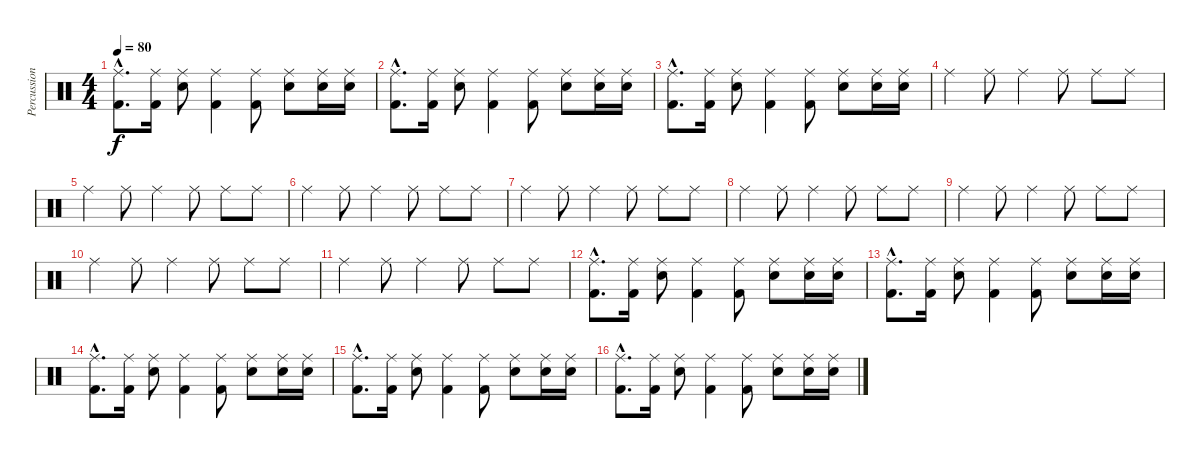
\track ("Percussion" "Percussion") {instrument percussion}
\staff {score}
\articulation defaults
\ts (4 4)
\tempo 80
\clef neutral
\ks c
("Ride (middle)"{hac} "Kick (hit) 2"{hac}).8{d dy f} ("Ride (middle)" "Kick (hit) 2").16 ("Ride (middle)" "Electric Snare (hit)").8 ("Ride (middle)" "Kick (hit) 2").4 ("Ride (middle)" "Kick (hit) 2").8 ("Ride (middle)" "Electric Snare (hit)").8 ("Ride (middle)" "Electric Snare (hit)").16 ("Ride (middle)" "Electric Snare (hit)").16 |
("Ride (middle)"{hac} "Kick (hit) 2"{hac}).8{d} ("Ride (middle)" "Kick (hit) 2").16 ("Ride (middle)" "Electric Snare (hit)").8 ("Ride (middle)" "Kick (hit) 2").4 ("Ride (middle)" "Kick (hit) 2").8 ("Ride (middle)" "Electric Snare (hit)").8 ("Ride (middle)" "Electric Snare (hit)").16 ("Ride (middle)" "Electric Snare (hit)").16 |
("Ride (middle)"{hac} "Kick (hit) 2"{hac}).8{d} ("Ride (middle)" "Kick (hit) 2").16 ("Ride (middle)" "Electric Snare (hit)").8 ("Ride (middle)" "Kick (hit) 2").4 ("Ride (middle)" "Kick (hit) 2").8 ("Ride (middle)" "Electric Snare (hit)").8 ("Ride (middle)" "Electric Snare (hit)").16 ("Ride (middle)" "Electric Snare (hit)").16 |
"Ride (middle)".4 "Ride (middle)".8 "Ride (middle)".4 "Ride (middle)".8 "Ride (middle)".8 "Ride (middle)".8 |
"Ride (middle)".4 "Ride (middle)".8 "Ride (middle)".4 "Ride (middle)".8 "Ride (middle)".8 "Ride (middle)".8 |
"Ride (middle)".4 "Ride (middle)".8 "Ride (middle)".4 "Ride (middle)".8 "Ride (middle)".8 "Ride (middle)".8 |
"Ride (middle)".4 "Ride (middle)".8 "Ride (middle)".4 "Ride (middle)".8 "Ride (middle)".8 "Ride (middle)".8 |
"Ride (middle)".4 "Ride (middle)".8 "Ride (middle)".4 "Ride (middle)".8 "Ride (middle)".8 "Ride (middle)".8 |
"Ride (middle)".4 "Ride (middle)".8 "Ride (middle)".4 "Ride (middle)".8 "Ride (middle)".8 "Ride (middle)".8 |
"Ride (middle)".4 "Ride (middle)".8 "Ride (middle)".4 "Ride (middle)".8 "Ride (middle)".8 "Ride (middle)".8 |
"Ride (middle)".4 "Ride (middle)".8 "Ride (middle)".4 "Ride (middle)".8 "Ride (middle)".8 "Ride (middle)".8 |
("Ride (middle)"{hac} "Kick (hit) 2"{hac}).8{d} ("Ride (middle)" "Kick (hit) 2").16 ("Ride (middle)" "Electric Snare (hit)").8 ("Ride (middle)" "Kick (hit) 2").4 ("Ride (middle)" "Kick (hit) 2").8 ("Ride (middle)" "Electric Snare (hit)").8 ("Ride (middle)" "Electric Snare (hit)").16 ("Ride (middle)" "Electric Snare (hit)").16 |
("Ride (middle)"{hac} "Kick (hit) 2"{hac}).8{d} ("Ride (middle)" "Kick (hit) 2").16 ("Ride (middle)" "Electric Snare (hit)").8 ("Ride (middle)" "Kick (hit) 2").4 ("Ride (middle)" "Kick (hit) 2").8 ("Ride (middle)" "Electric Snare (hit)").8 ("Ride (middle)" "Electric Snare (hit)").16 ("Ride (middle)" "Electric Snare (hit)").16 |
("Ride (middle)"{hac} "Kick (hit) 2"{hac}).8{d} ("Ride (middle)" "Kick (hit) 2").16 ("Ride (middle)" "Electric Snare (hit)").8 ("Ride (middle)" "Kick (hit) 2").4 ("Ride (middle)" "Kick (hit) 2").8 ("Ride (middle)" "Electric Snare (hit)").8 ("Ride (middle)" "Electric Snare (hit)").16 ("Ride (middle)" "Electric Snare (hit)").16 |
("Ride (middle)"{hac} "Kick (hit) 2"{hac}).8{d} ("Ride (middle)" "Kick (hit) 2").16 ("Ride (middle)" "Electric Snare (hit)").8 ("Ride (middle)" "Kick (hit) 2").4 ("Ride (middle)" "Kick (hit) 2").8 ("Ride (middle)" "Electric Snare (hit)").8 ("Ride (middle)" "Electric Snare (hit)").16 ("Ride (middle)" "Electric Snare (hit)").16 |
("Ride (middle)"{hac} "Kick (hit) 2"{hac}).8{d} ("Ride (middle)" "Kick (hit) 2").16 ("Ride (middle)" "Electric Snare (hit)").8 ("Ride (middle)" "Kick (hit) 2").4 ("Ride (middle)" "Kick (hit) 2").8 ("Ride (middle)" "Electric Snare (hit)").8 ("Ride (middle)" "Electric Snare (hit)").16 ("Ride (middle)" "Electric Snare (hit)").16
